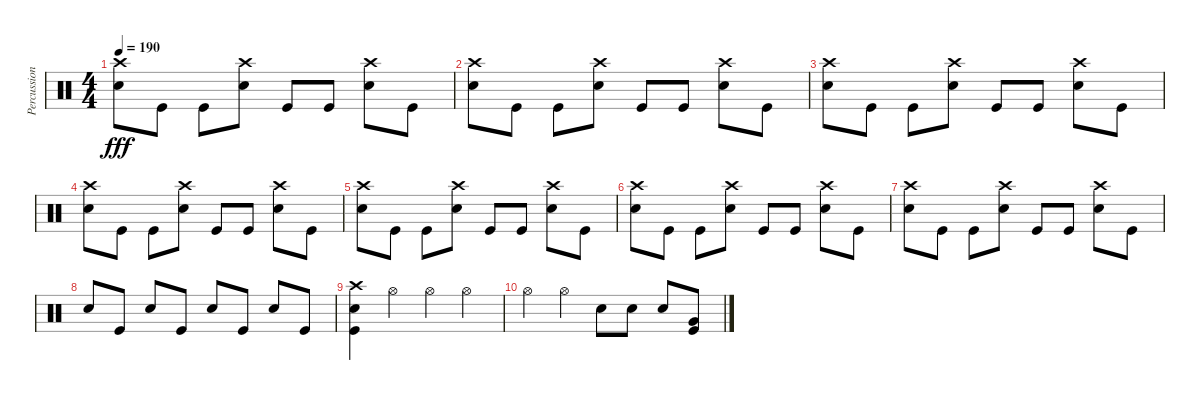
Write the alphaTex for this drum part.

\track ("Percussions" "Percussion") {instrument percussion}
\staff {score}
\articulation defaults
\ts (4 4)
\tempo 190
\clef neutral
\ks c
("Crash high (hit)" "Electric Snare (hit)").8{dy fff} "Kick (hit)".8 "Kick (hit)".8 ("Crash high (hit)" "Electric Snare (hit)").8 "Kick (hit)".8 "Kick (hit)".8 ("Crash high (hit)" "Electric Snare (hit)").8 "Kick (hit)".8 |
("Crash high (hit)" "Electric Snare (hit)").8 "Kick (hit)".8 "Kick (hit)".8 ("Crash high (hit)" "Electric Snare (hit)").8 "Kick (hit)".8 "Kick (hit)".8 ("Crash high (hit)" "Electric Snare (hit)").8 "Kick (hit)".8 |
("Crash high (hit)" "Electric Snare (hit)").8 "Kick (hit)".8 "Kick (hit)".8 ("Crash high (hit)" "Electric Snare (hit)").8 "Kick (hit)".8 "Kick (hit)".8 ("Crash high (hit)" "Electric Snare (hit)").8 "Kick (hit)".8 |
("Crash high (hit)" "Electric Snare (hit)").8 "Kick (hit)".8 "Kick (hit)".8 ("Crash high (hit)" "Electric Snare (hit)").8 "Kick (hit)".8 "Kick (hit)".8 ("Crash high (hit)" "Electric Snare (hit)").8 "Kick (hit)".8 |
("Crash high (hit)" "Electric Snare (hit)").8 "Kick (hit)".8 "Kick (hit)".8 ("Crash high (hit)" "Electric Snare (hit)").8 "Kick (hit)".8 "Kick (hit)".8 ("Crash high (hit)" "Electric Snare (hit)").8 "Kick (hit)".8 |
("Crash high (hit)" "Electric Snare (hit)").8 "Kick (hit)".8 "Kick (hit)".8 ("Crash high (hit)" "Electric Snare (hit)").8 "Kick (hit)".8 "Kick (hit)".8 ("Crash high (hit)" "Electric Snare (hit)").8 "Kick (hit)".8 |
("Crash high (hit)" "Electric Snare (hit)").8 "Kick (hit)".8 "Kick (hit)".8 ("Crash high (hit)" "Electric Snare (hit)").8 "Kick (hit)".8 "Kick (hit)".8 ("Crash high (hit)" "Electric Snare (hit)").8 "Kick (hit)".8 |
"Electric Snare (hit)".8 "Kick (hit)".8 "Electric Snare (hit)".8 "Kick (hit)".8 "Electric Snare (hit)".8 "Kick (hit)".8 "Electric Snare (hit)".8 "Kick (hit)".8 |
("Crash high (hit)" "Electric Snare (hit)" "Kick (hit)").4 "Hi-Hat (open)".4 "Hi-Hat (open)".4 "Hi-Hat (open)".4 |
"Hi-Hat (open)".4 "Hi-Hat (open)".4 "Electric Snare (hit)".8 "Electric Snare (hit)".8 "Electric Snare (hit)".8 ("Very Low Tom (hit)" "Kick (hit)").8
